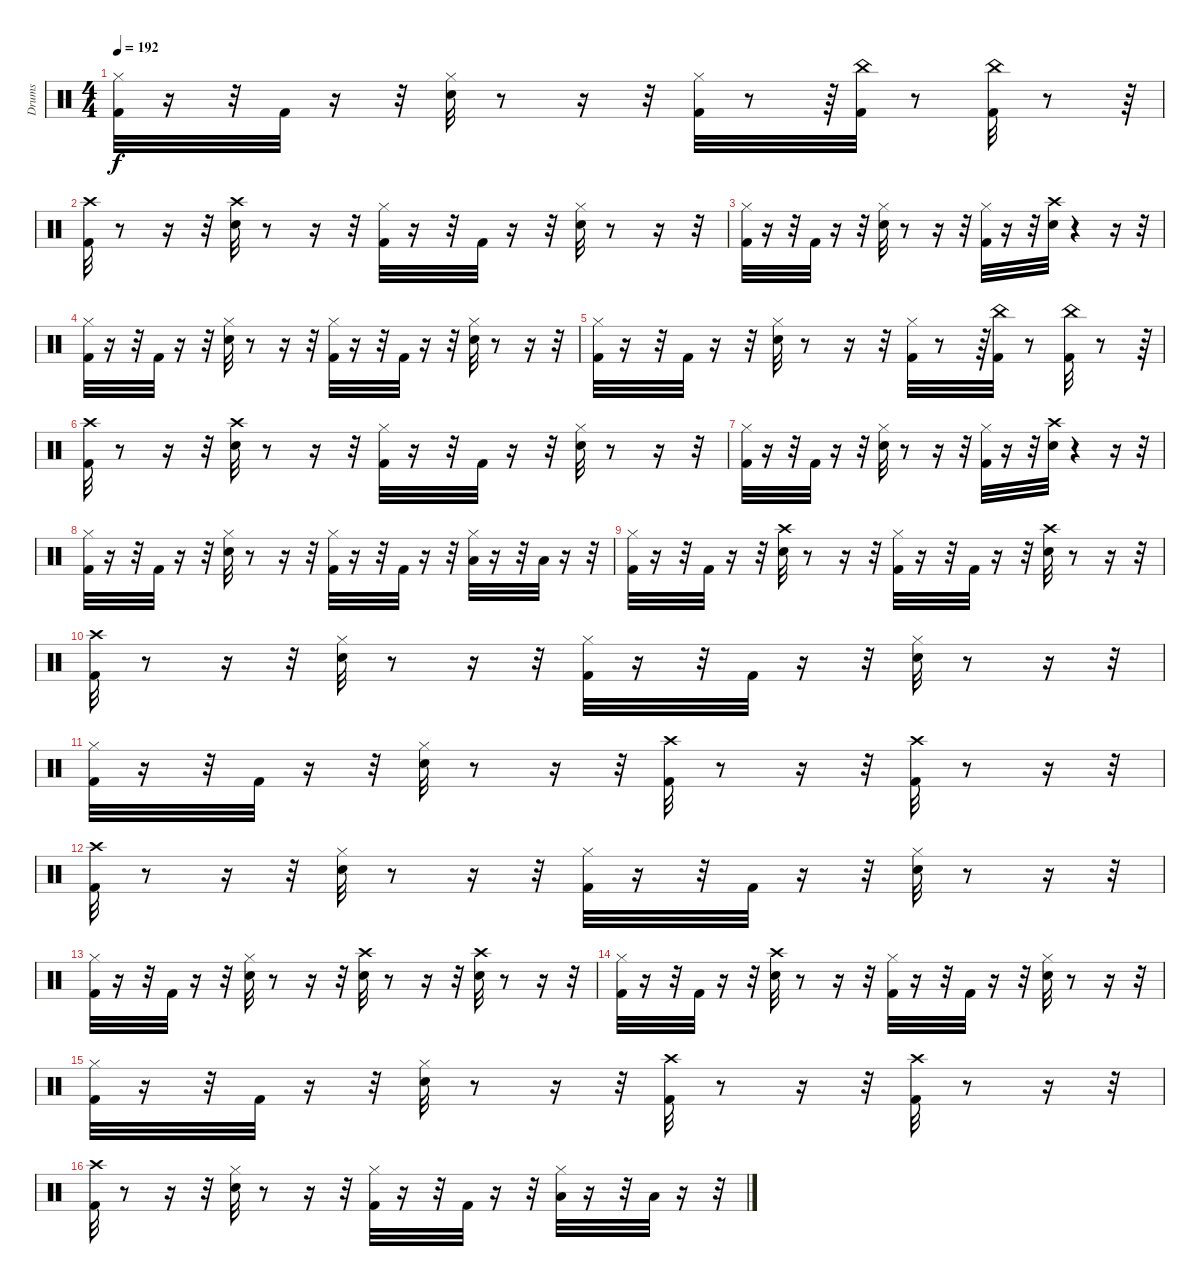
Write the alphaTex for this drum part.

\track ("Drums" "Drums") {instrument percussion}
\staff {score}
\articulation defaults
\ts (4 4)
\tempo 192
\clef neutral
\ks c
("Kick (hit) 2" "Hi-Hat (closed)").32{dy f} r.16 r.32 "Kick (hit) 2".32 r.16 r.32 ("Snare (hit) 2" "Hi-Hat (closed)").32 r.8 r.16 r.32 ("Kick (hit) 2" "Hi-Hat (closed)").32 r.8 r.64 ("China (hit)" "Kick (hit) 2").32 r.8 ("China (hit)" "Kick (hit) 2").32 r.8 r.64 |
("Kick (hit) 2" "Crash high (hit)").32 r.8 r.16 r.32 ("Crash high (hit)" "Snare (hit) 2").32 r.8 r.16 r.32 ("Hi-Hat (closed)" "Kick (hit) 2").32 r.16 r.32 "Kick (hit) 2".32 r.16 r.32 ("Hi-Hat (closed)" "Snare (hit) 2").32 r.8 r.16 r.32 |
("Hi-Hat (closed)" "Kick (hit) 2").32 r.16 r.32 "Kick (hit) 2".32 r.16 r.32 ("Snare (hit) 2" "Hi-Hat (closed)").32 r.8 r.16 r.32 ("Hi-Hat (closed)" "Kick (hit) 2").32 r.16 r.32 ("Snare (hit) 2" "Crash high (hit)").32 r.4 r.16 r.32 |
("Kick (hit) 2" "Hi-Hat (closed)").32 r.16 r.32 "Kick (hit) 2".32 r.16 r.32 ("Snare (hit) 2" "Hi-Hat (closed)").32 r.8 r.16 r.32 ("Kick (hit) 2" "Hi-Hat (closed)").32 r.16 r.32 "Kick (hit) 2".32 r.16 r.32 ("Snare (hit) 2" "Hi-Hat (closed)").32 r.8 r.16 r.32 |
("Kick (hit) 2" "Hi-Hat (closed)").32 r.16 r.32 "Kick (hit) 2".32 r.16 r.32 ("Snare (hit) 2" "Hi-Hat (closed)").32 r.8 r.16 r.32 ("Kick (hit) 2" "Hi-Hat (closed)").32 r.8 r.64 ("China (hit)" "Kick (hit) 2").32 r.8 ("China (hit)" "Kick (hit) 2").32 r.8 r.64 |
("Kick (hit) 2" "Crash high (hit)").32 r.8 r.16 r.32 ("Crash high (hit)" "Snare (hit) 2").32 r.8 r.16 r.32 ("Kick (hit) 2" "Hi-Hat (closed)").32 r.16 r.32 "Kick (hit) 2".32 r.16 r.32 ("Hi-Hat (closed)" "Snare (hit) 2").32 r.8 r.16 r.32 |
("Hi-Hat (closed)" "Kick (hit) 2").32 r.16 r.32 "Kick (hit) 2".32 r.16 r.32 ("Snare (hit) 2" "Hi-Hat (closed)").32 r.8 r.16 r.32 ("Hi-Hat (closed)" "Kick (hit) 2").32 r.16 r.32 ("Crash high (hit)" "Snare (hit) 2").32 r.4 r.16 r.32 |
("Hi-Hat (closed)" "Kick (hit) 2").32 r.16 r.32 "Kick (hit) 2".32 r.16 r.32 ("Snare (hit) 2" "Hi-Hat (closed)").32 r.8 r.16 r.32 ("Hi-Hat (closed)" "Kick (hit) 2").32 r.16 r.32 "Kick (hit) 2".32 r.16 r.32 ("Low Tom (hit)" "Hi-Hat (closed)").32 r.16 r.32 "Low Tom (hit)".32 r.16 r.32 |
("Hi-Hat (closed)" "Kick (hit) 2").32 r.16 r.32 "Kick (hit) 2".32 r.16 r.32 ("Crash high (hit)" "Snare (hit) 2").32 r.8 r.16 r.32 ("Hi-Hat (closed)" "Kick (hit) 2").32 r.16 r.32 "Kick (hit) 2".32 r.16 r.32 ("Crash high (hit)" "Snare (hit) 2").32 r.8 r.16 r.32 |
("Kick (hit) 2" "Crash high (hit)").32 r.8 r.16 r.32 ("Hi-Hat (closed)" "Snare (hit) 2").32 r.8 r.16 r.32 ("Hi-Hat (closed)" "Kick (hit) 2").32 r.16 r.32 "Kick (hit) 2".32 r.16 r.32 ("Hi-Hat (closed)" "Snare (hit) 2").32 r.8 r.16 r.32 |
("Hi-Hat (closed)" "Kick (hit) 2").32 r.16 r.32 "Kick (hit) 2".32 r.16 r.32 ("Snare (hit) 2" "Hi-Hat (closed)").32 r.8 r.16 r.32 ("Crash high (hit)" "Kick (hit) 2").32 r.8 r.16 r.32 ("Crash high (hit)" "Kick (hit) 2").32 r.8 r.16 r.32 |
("Kick (hit) 2" "Crash high (hit)").32 r.8 r.16 r.32 ("Hi-Hat (closed)" "Snare (hit) 2").32 r.8 r.16 r.32 ("Kick (hit) 2" "Hi-Hat (closed)").32 r.16 r.32 "Kick (hit) 2".32 r.16 r.32 ("Snare (hit) 2" "Hi-Hat (closed)").32 r.8 r.16 r.32 |
("Kick (hit) 2" "Hi-Hat (closed)").32 r.16 r.32 "Kick (hit) 2".32 r.16 r.32 ("Snare (hit) 2" "Hi-Hat (closed)").32 r.8 r.16 r.32 ("Snare (hit) 2" "Crash high (hit)").32 r.8 r.16 r.32 ("Snare (hit) 2" "Crash high (hit)").32 r.8 r.16 r.32 |
("Kick (hit) 2" "Hi-Hat (closed)").32 r.16 r.32 "Kick (hit) 2".32 r.16 r.32 ("Crash high (hit)" "Snare (hit) 2").32 r.8 r.16 r.32 ("Hi-Hat (closed)" "Kick (hit) 2").32 r.16 r.32 "Kick (hit) 2".32 r.16 r.32 ("Hi-Hat (closed)" "Snare (hit) 2").32 r.8 r.16 r.32 |
("Kick (hit) 2" "Hi-Hat (closed)").32 r.16 r.32 "Kick (hit) 2".32 r.16 r.32 ("Snare (hit) 2" "Hi-Hat (closed)").32 r.8 r.16 r.32 ("Crash high (hit)" "Kick (hit) 2").32 r.8 r.16 r.32 ("Crash high (hit)" "Kick (hit) 2").32 r.8 r.16 r.32 |
("Kick (hit) 2" "Crash high (hit)").32 r.8 r.16 r.32 ("Hi-Hat (closed)" "Snare (hit) 2").32 r.8 r.16 r.32 ("Hi-Hat (closed)" "Kick (hit) 2").32 r.16 r.32 "Kick (hit) 2".32 r.16 r.32 ("Low Tom (hit)" "Hi-Hat (closed)").32 r.16 r.32 "Low Tom (hit)".32 r.16 r.32
